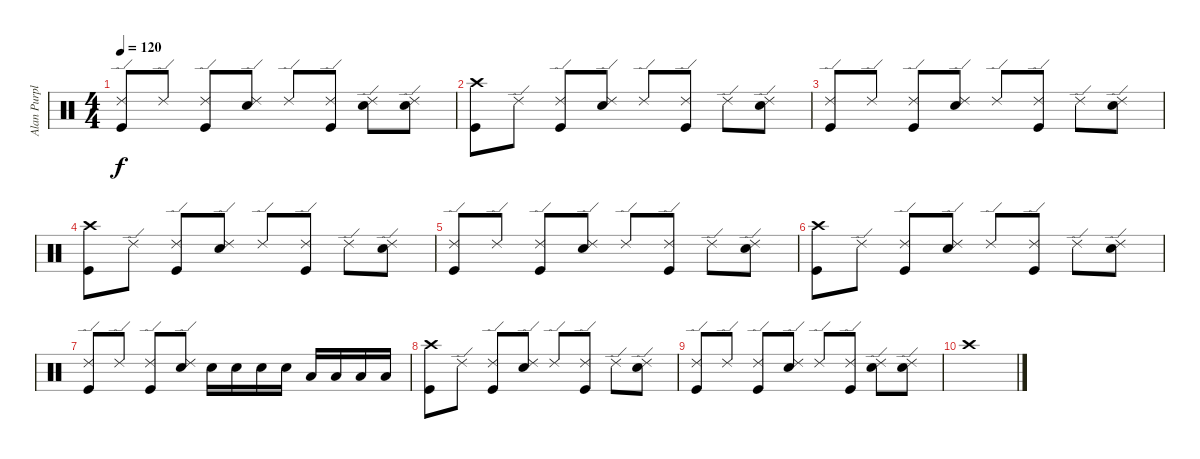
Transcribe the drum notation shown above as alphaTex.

\track ("Alan Purple" "Alan Purpl") {instrument percussion}
\staff {score}
\articulation defaults
\ts (4 4)
\tempo 120
\clef neutral
\ks c
("Ride (edge) 2" "Kick (hit)").8{dy f} "Ride (edge) 2".8 ("Ride (edge) 2" "Kick (hit)").8 ("Ride (edge) 2" "Snare (hit) 2").8 "Ride (edge) 2".8 ("Ride (edge) 2" "Kick (hit)").8 ("Ride (edge) 2" "Electric Snare (hit)").8 ("Ride (edge) 2" "Electric Snare (hit)").8 |
("Crash high (hit)" "Kick (hit)").8{volume 9} "Ride (edge) 2".8 ("Ride (edge) 2" "Kick (hit)").8 ("Ride (edge) 2" "Snare (hit) 2").8 "Ride (edge) 2".8 ("Ride (edge) 2" "Kick (hit)").8 "Ride (edge) 2".8 ("Ride (edge) 2" "Snare (hit) 2").8 |
("Ride (edge) 2" "Kick (hit)").8 "Ride (edge) 2".8 ("Ride (edge) 2" "Kick (hit)").8 ("Ride (edge) 2" "Snare (hit) 2").8 "Ride (edge) 2".8 ("Ride (edge) 2" "Kick (hit)").8 "Ride (edge) 2".8 ("Ride (edge) 2" "Snare (hit) 2").8 |
("Crash high (hit)" "Kick (hit)").8{volume 8} "Ride (edge) 2".8 ("Ride (edge) 2" "Kick (hit)").8 ("Ride (edge) 2" "Snare (hit) 2").8 "Ride (edge) 2".8 ("Ride (edge) 2" "Kick (hit)").8 "Ride (edge) 2".8 ("Ride (edge) 2" "Snare (hit) 2").8 |
("Ride (edge) 2" "Kick (hit)").8 "Ride (edge) 2".8 ("Ride (edge) 2" "Kick (hit)").8 ("Ride (edge) 2" "Snare (hit) 2").8 "Ride (edge) 2".8 ("Ride (edge) 2" "Kick (hit)").8 "Ride (edge) 2".8 ("Ride (edge) 2" "Snare (hit) 2").8 |
("Crash high (hit)" "Kick (hit)").8{volume 7} "Ride (edge) 2".8 ("Ride (edge) 2" "Kick (hit)").8 ("Ride (edge) 2" "Snare (hit) 2").8 "Ride (edge) 2".8 ("Ride (edge) 2" "Kick (hit)").8 "Ride (edge) 2".8 ("Ride (edge) 2" "Snare (hit) 2").8 |
("Ride (edge) 2" "Kick (hit)").8 "Ride (edge) 2".8 ("Ride (edge) 2" "Kick (hit)").8 ("Ride (edge) 2" "Snare (hit) 2").8 "Electric Snare (hit)".16 "Electric Snare (hit)".16 "Electric Snare (hit)".16 "Electric Snare (hit)".16 "Low Tom (hit)".16 "Low Tom (hit)".16 "Low Tom (hit)".16 "Low Tom (hit)".16 |
("Crash high (hit)" "Kick (hit)").8{volume 6} "Ride (edge) 2".8 ("Ride (edge) 2" "Kick (hit)").8 ("Ride (edge) 2" "Snare (hit) 2").8 "Ride (edge) 2".8 ("Ride (edge) 2" "Kick (hit)").8 "Ride (edge) 2".8 ("Ride (edge) 2" "Snare (hit) 2").8 |
("Ride (edge) 2" "Kick (hit)").8 "Ride (edge) 2".8 ("Ride (edge) 2" "Kick (hit)").8 ("Ride (edge) 2" "Snare (hit) 2").8 "Ride (edge) 2".8 ("Ride (edge) 2" "Kick (hit)").8 ("Ride (edge) 2" "Electric Snare (hit)").8 ("Ride (edge) 2" "Snare (hit) 2").8 |
"Crash high (hit)".1{volume 5}
